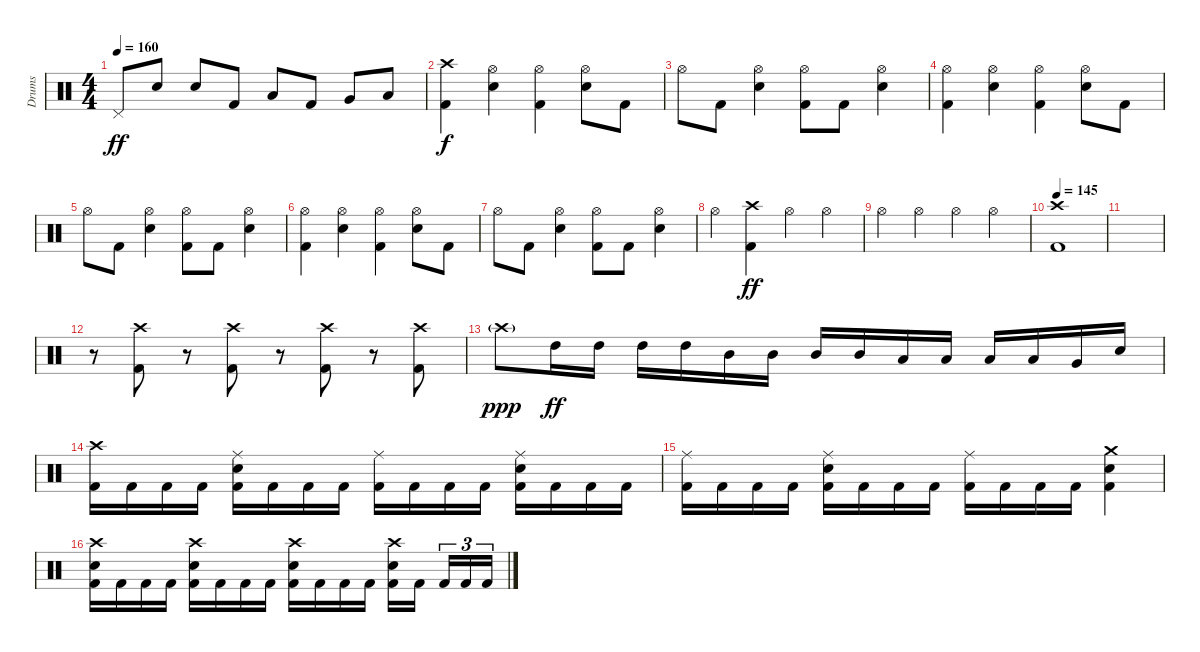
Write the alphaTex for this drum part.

\track ("Drums" "Drums") {instrument percussion}
\staff {score}
\articulation defaults
\ts (4 4)
\tempo 160
\clef neutral
\ks c "Pedal Hi-Hat (hit)".8{dy ff} "Electric Snare (hit)".8 "Electric Snare (hit)".8 "Kick (hit) 2".8 "Low Tom (hit)".8 "Kick (hit) 2".8 "Very Low Tom (hit)".8 "Low Floor Tom (hit)".8
|
("Crash high (hit)" "Kick (hit) 2").4{dy f} ("Hi-Hat (open)" "Electric Snare (hit)").4 ("Hi-Hat (open)" "Kick (hit) 2").4 ("Hi-Hat (open)" "Electric Snare (hit)").8 "Kick (hit) 2".8 |
"Hi-Hat (open)".8 "Kick (hit) 2".8 ("Hi-Hat (open)" "Electric Snare (hit)").4 ("Hi-Hat (open)" "Kick (hit) 2").8 "Kick (hit) 2".8 ("Hi-Hat (open)" "Electric Snare (hit)").4 |
("Hi-Hat (open)" "Kick (hit) 2").4 ("Hi-Hat (open)" "Electric Snare (hit)").4 ("Hi-Hat (open)" "Kick (hit) 2").4 ("Hi-Hat (open)" "Electric Snare (hit)").8 "Kick (hit) 2".8 |
"Hi-Hat (open)".8 "Kick (hit) 2".8 ("Hi-Hat (open)" "Electric Snare (hit)").4 ("Hi-Hat (open)" "Kick (hit) 2").8 "Kick (hit) 2".8 ("Hi-Hat (open)" "Electric Snare (hit)").4 |
("Hi-Hat (open)" "Kick (hit) 2").4 ("Hi-Hat (open)" "Electric Snare (hit)").4 ("Hi-Hat (open)" "Kick (hit) 2").4 ("Hi-Hat (open)" "Electric Snare (hit)").8 "Kick (hit) 2".8 |
"Hi-Hat (open)".8 "Kick (hit) 2".8 ("Hi-Hat (open)" "Electric Snare (hit)").4 ("Hi-Hat (open)" "Kick (hit) 2").8 "Kick (hit) 2".8 ("Hi-Hat (open)" "Electric Snare (hit)").4 |
"Hi-Hat (open)".4 ("Crash high (hit)" "Kick (hit) 2").4{dy ff} "Hi-Hat (open)".4 "Hi-Hat (open)".4 |
"Hi-Hat (open)".4 "Hi-Hat (open)".4 "Hi-Hat (open)".4 "Hi-Hat (open)".4 |
\tempo 145
("Crash high (hit)" "Kick (hit) 2").1 |
|
r.8 ("Crash high (hit)" "Kick (hit) 2").8 r.8{volume 0} ("Crash high (hit)" "Kick (hit) 2").8{volume 13} r.8{volume 0} ("Crash high (hit)" "Kick (hit) 2").8{volume 13} r.8{volume 0} ("Crash high (hit)" "Kick (hit) 2").8{volume 13} |
"Crash high (hit)"{g}.8{dy ppp} "High Tom (hit)".16{dy ff volume 13} "High Tom (hit)".16 "High Tom (hit)".16 "High Tom (hit)".16 "Mid Tom (hit)".16 "Mid Tom (hit)".16 "Mid Tom (hit)".16 "Mid Tom (hit)".16 "Low Tom (hit)".16 "Low Tom (hit)".16 "Low Tom (hit)".16 "Low Tom (hit)".16 "Very Low Tom (hit)".16 "Electric Snare (hit)".16 |
("Crash high (hit)" "Kick (hit) 2").16 "Kick (hit) 2".16 "Kick (hit) 2".16 "Kick (hit) 2".16 ("Ride (middle)" "Electric Snare (hit)" "Kick (hit) 2").16 "Kick (hit) 2".16 "Kick (hit) 2".16 "Kick (hit) 2".16 ("Ride (middle)" "Kick (hit) 2").16 "Kick (hit) 2".16 "Kick (hit) 2".16 "Kick (hit) 2".16 ("Ride (middle)" "Electric Snare (hit)" "Kick (hit) 2").16 "Kick (hit) 2".16 "Kick (hit) 2".16 "Kick (hit) 2".16 |
("Ride (middle)" "Kick (hit) 2").16 "Kick (hit) 2".16 "Kick (hit) 2".16 "Kick (hit) 2".16 ("Ride (middle)" "Electric Snare (hit)" "Kick (hit) 2").16 "Kick (hit) 2".16 "Kick (hit) 2".16 "Kick (hit) 2".16 ("Ride (middle)" "Kick (hit) 2").16 "Kick (hit) 2".16 "Kick (hit) 2".16 "Kick (hit) 2".16 ("Crash medium (hit)" "Electric Snare (hit)" "Kick (hit) 2").4 |
("Crash high (hit)" "Electric Snare (hit)" "Kick (hit) 2").16 "Kick (hit) 2".16 "Kick (hit) 2".16 "Kick (hit) 2".16 ("Crash high (hit)" "Electric Snare (hit)" "Kick (hit) 2").16 "Kick (hit) 2".16 "Kick (hit) 2".16 "Kick (hit) 2".16 ("Crash high (hit)" "Electric Snare (hit)" "Kick (hit) 2").16 "Kick (hit) 2".16 "Kick (hit) 2".16 "Kick (hit) 2".16 ("Crash high (hit)" "Electric Snare (hit)" "Kick (hit) 2").16 "Kick (hit) 2".16{beam splitsecondary} "Kick (hit) 2".16{tu (3 2)} "Kick (hit) 2".16{tu (3 2)} "Kick (hit) 2".16{tu (3 2)}
